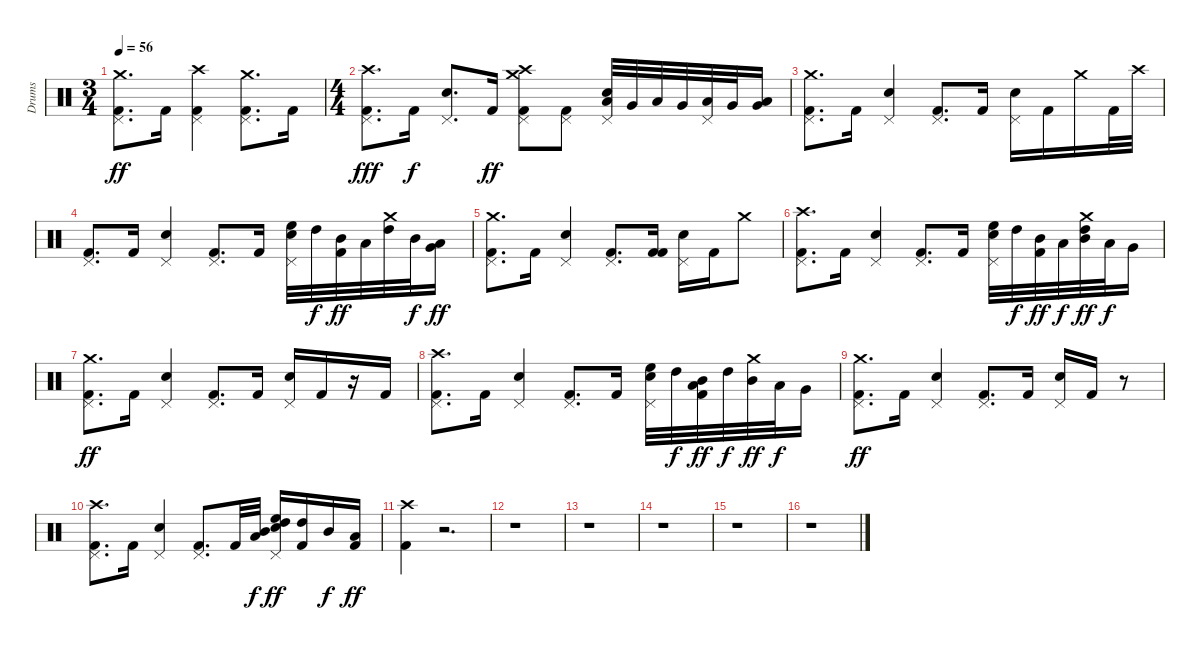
\track ("Drums" "Drums") {instrument percussion}
\staff {score}
\articulation defaults
\ts (3 4)
\tempo 56
\clef neutral
\ks c
("Crash medium (hit)" "Pedal Hi-Hat (hit)" "Kick (hit) 2").8{d dy ff} "Kick (hit) 2".16 ("Kick (hit) 2" "Crash high (hit)" "Pedal Hi-Hat (hit)").4 ("Crash medium (hit)" "Kick (hit) 2" "Pedal Hi-Hat (hit)").8{d} "Kick (hit) 2".16 |
\ts (4 4)
("Pedal Hi-Hat (hit)" "Crash high (hit)" "Kick (hit) 2").8{d dy fff} "Kick (hit) 2".16{dy f} ("Pedal Hi-Hat (hit)" "Snare (hit) 2").8{d} "Kick (hit) 2".16{dy ff} ("Kick (hit) 2" "Crash high (hit)" "Pedal Hi-Hat (hit)" "Crash medium (hit)").8 ("Kick (hit) 2" "Pedal Hi-Hat (hit)").8 ("Pedal Hi-Hat (hit)" "Snare (hit) 2" "Low Tom (hit)").32 "Very Low Tom (hit)".32 "Low Tom (hit)".32 "Very Low Tom (hit)".32 ("Low Tom (hit)" "Pedal Hi-Hat (hit)").32 "Very Low Tom (hit)".32 ("Low Tom (hit)" "Very Low Tom (hit)").16 |
("Crash medium (hit)" "Pedal Hi-Hat (hit)" "Kick (hit) 2").8{d} "Kick (hit) 2".16 ("Snare (hit) 2" "Pedal Hi-Hat (hit)").4 ("Kick (hit) 2" "Pedal Hi-Hat (hit)").8{d} "Kick (hit) 2".16 ("Snare (hit) 2" "Pedal Hi-Hat (hit)").16 "Kick (hit) 2".16 "Crash medium (hit)".16 "Kick (hit) 2".32 "Crash high (hit)".32 |
("Pedal Hi-Hat (hit)" "Kick (hit) 2").8{d} "Kick (hit) 2".16 ("Snare (hit) 2" "Pedal Hi-Hat (hit)").4 ("Kick (hit) 2" "Pedal Hi-Hat (hit)").8{d} "Kick (hit) 2".16 ("Snare (hit) 2" "Pedal Hi-Hat (hit)" "High Floor Tom (hit)").32 "High Tom (hit)".32{dy f} ("Kick (hit) 2" "Mid Tom (hit)").32{dy ff} "Low Tom (hit)".32 ("High Tom (hit)" "Crash medium (hit)").32 "Mid Tom (hit)".32{dy f} ("Low Tom (hit)" "Very Low Tom (hit)").16{dy ff} |
("Crash medium (hit)" "Pedal Hi-Hat (hit)" "Kick (hit) 2").8{d} "Kick (hit) 2".16 ("Snare (hit) 2" "Pedal Hi-Hat (hit)").4 ("Kick (hit) 2" "Pedal Hi-Hat (hit)").8{d} ("Kick (hit) 2" "Kick (hit) 2").16 ("Snare (hit) 2" "Pedal Hi-Hat (hit)").16 "Kick (hit) 2".16 "Crash medium (hit)".8 |
("Crash high (hit)" "Pedal Hi-Hat (hit)" "Kick (hit) 2").8{d} "Kick (hit) 2".16 ("Snare (hit) 2" "Pedal Hi-Hat (hit)").4 ("Kick (hit) 2" "Pedal Hi-Hat (hit)").8{d} "Kick (hit) 2".16 ("Snare (hit) 2" "High Floor Tom (hit)" "Pedal Hi-Hat (hit)").32 "High Tom (hit)".32{dy f} ("Mid Tom (hit)" "Kick (hit) 2").32{dy ff} "Low Tom (hit)".32{dy f} ("High Tom (hit)" "Crash medium (hit)" "Mid Tom (hit)").32{dy ff} "Low Tom (hit)".32{dy f} "Very Low Tom (hit)".16 |
("Pedal Hi-Hat (hit)" "Crash medium (hit)" "Kick (hit) 2").8{d dy ff} "Kick (hit) 2".16 ("Snare (hit) 2" "Pedal Hi-Hat (hit)").4 ("Kick (hit) 2" "Pedal Hi-Hat (hit)").8{d} "Kick (hit) 2".16 ("Snare (hit) 2" "Pedal Hi-Hat (hit)").16 "Kick (hit) 2".16 r.16 "Kick (hit) 2".16 |
("Crash high (hit)" "Pedal Hi-Hat (hit)" "Kick (hit) 2").8{d} "Kick (hit) 2".16 ("Snare (hit) 2" "Pedal Hi-Hat (hit)").4 ("Kick (hit) 2" "Pedal Hi-Hat (hit)").8{d} "Kick (hit) 2".16 ("Snare (hit) 2" "High Floor Tom (hit)" "Pedal Hi-Hat (hit)").32 "High Tom (hit)".32{dy f} ("Mid Tom (hit)" "Kick (hit) 2" "Low Tom (hit)").32{dy ff} "High Tom (hit)".32{dy f} ("Crash medium (hit)" "Mid Tom (hit)").32{dy ff} "Low Tom (hit)".32{dy f} "Very Low Tom (hit)".16 |
("Pedal Hi-Hat (hit)" "Kick (hit) 2" "Crash medium (hit)").8{d dy ff} "Kick (hit) 2".16 ("Snare (hit) 2" "Pedal Hi-Hat (hit)").4 ("Kick (hit) 2" "Pedal Hi-Hat (hit)").8{d} "Kick (hit) 2".16 ("Snare (hit) 2" "Pedal Hi-Hat (hit)").16 "Kick (hit) 2".16 r.8 |
("Crash high (hit)" "Pedal Hi-Hat (hit)" "Kick (hit) 2").8{d} "Kick (hit) 2".16 ("Snare (hit) 2" "Pedal Hi-Hat (hit)").4 ("Kick (hit) 2" "Pedal Hi-Hat (hit)").8{d} "Kick (hit) 2".32 ("Low Tom (hit)" "Mid Tom (hit)").32{dy f} ("High Tom (hit)" "Snare (hit) 2" "Pedal Hi-Hat (hit)" "High Floor Tom (hit)").16{dy ff} ("Kick (hit) 2" "High Tom (hit)").16 "Mid Tom (hit)".16{dy f} ("Kick (hit) 2" "Low Tom (hit)").16{dy ff} |
("Crash high (hit)" "Kick (hit) 2").4 r.2{d} |
r.1 |
r.1 |
r.1 |
r.1 |
r.1
